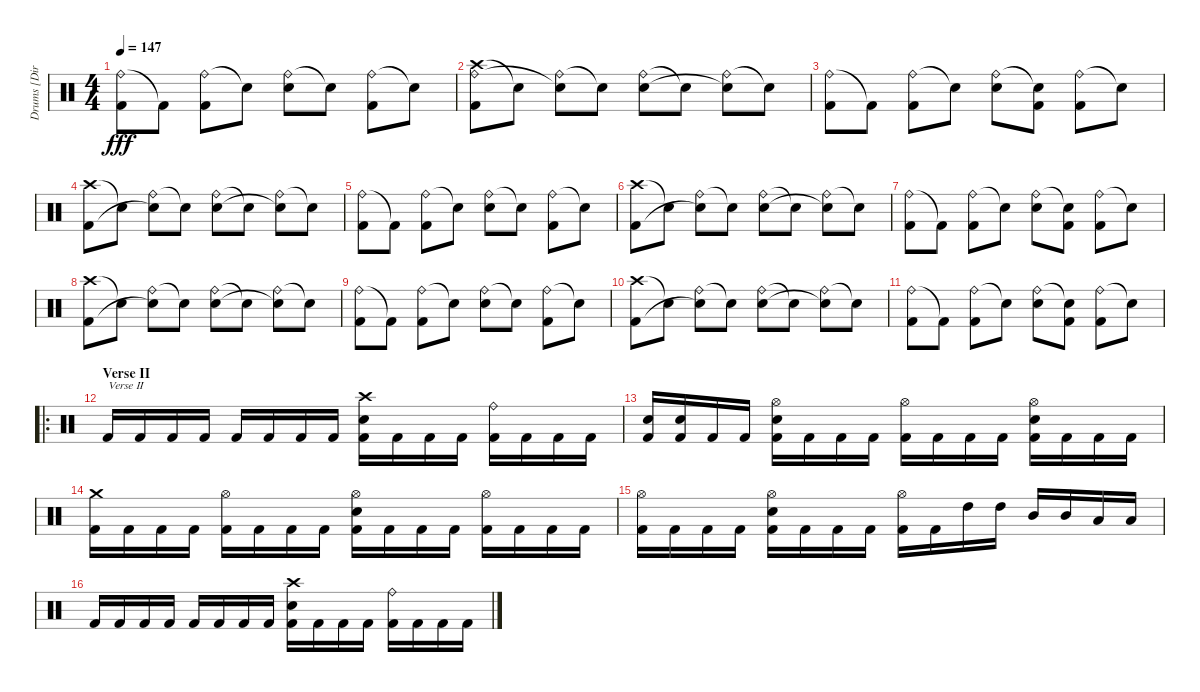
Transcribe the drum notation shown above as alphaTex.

\track ("Drums [Dirge Rep]" "Drums [Dir") {instrument percussion}
\staff {score}
\articulation defaults
\ts (4 4)
\tempo 147
\clef neutral
\ks c
("Ride (bell)" "Kick (hit) 2").8{dy fff} "Kick (hit) 2"{t}.8 ("Ride (bell)" "Kick (hit) 2").8 "Snare (hit)"{t}.8 ("Ride (bell)" "Electric Snare (hit)").8 "Snare (hit)"{t}.8 ("Ride (bell)" "Kick (hit) 2").8 "Snare (hit)"{t}.8 |
("Crash high (hit)" "Ride (bell)" "Kick (hit) 2").8 "Snare (hit)"{t}.8 ("Ride (bell)" "Snare (hit)"{t}).8 "Snare (hit)"{t}.8 ("Ride (bell)" "Electric Snare (hit)").8 "Snare (hit)"{t}.8 ("Ride (bell)" "Snare (hit)"{t}).8 "Snare (hit)"{t}.8 |
("Ride (bell)" "Kick (hit) 2").8 "Kick (hit) 2"{t}.8 ("Ride (bell)" "Kick (hit) 2").8 "Snare (hit)"{t}.8 ("Ride (bell)" "Electric Snare (hit)").8 ("Snare (hit)"{t} "Kick (hit) 2").8 ("Ride (bell)" "Kick (hit) 2").8 "Snare (hit)"{t}.8 |
("Crash high (hit)" "Kick (hit) 2").8 "Snare (hit)"{t}.8 ("Ride (bell)" "Snare (hit)"{t}).8 "Snare (hit)"{t}.8 ("Ride (bell)" "Electric Snare (hit)").8 "Snare (hit)"{t}.8 ("Ride (bell)" "Snare (hit)"{t}).8 "Snare (hit)"{t}.8 |
("Ride (bell)" "Kick (hit) 2").8 "Kick (hit) 2"{t}.8 ("Ride (bell)" "Kick (hit) 2").8 "Snare (hit)"{t}.8 ("Ride (bell)" "Electric Snare (hit)").8 "Snare (hit)"{t}.8 ("Ride (bell)" "Kick (hit) 2").8 "Snare (hit)"{t}.8 |
("Crash high (hit)" "Kick (hit) 2").8 "Snare (hit)"{t}.8 ("Ride (bell)" "Snare (hit)"{t}).8 "Snare (hit)"{t}.8 ("Ride (bell)" "Electric Snare (hit)").8 "Snare (hit)"{t}.8 ("Ride (bell)" "Snare (hit)"{t}).8 "Snare (hit)"{t}.8 |
("Ride (bell)" "Kick (hit) 2").8 "Kick (hit) 2"{t}.8 ("Ride (bell)" "Kick (hit) 2").8 "Snare (hit)"{t}.8 ("Ride (bell)" "Electric Snare (hit)").8 ("Snare (hit)"{t} "Kick (hit) 2").8 ("Ride (bell)" "Kick (hit) 2").8 "Snare (hit)"{t}.8 |
("Crash high (hit)" "Kick (hit) 2").8 "Snare (hit)"{t}.8 ("Ride (bell)" "Snare (hit)"{t}).8 "Snare (hit)"{t}.8 ("Ride (bell)" "Electric Snare (hit)").8 "Snare (hit)"{t}.8 ("Ride (bell)" "Snare (hit)"{t}).8 "Snare (hit)"{t}.8 |
("Ride (bell)" "Kick (hit) 2").8 "Kick (hit) 2"{t}.8 ("Ride (bell)" "Kick (hit) 2").8 "Snare (hit)"{t}.8 ("Ride (bell)" "Electric Snare (hit)").8 "Snare (hit)"{t}.8 ("Ride (bell)" "Kick (hit) 2").8 "Snare (hit)"{t}.8 |
("Crash high (hit)" "Kick (hit) 2").8 "Snare (hit)"{t}.8 ("Ride (bell)" "Snare (hit)"{t}).8 "Snare (hit)"{t}.8 ("Ride (bell)" "Electric Snare (hit)").8 "Snare (hit)"{t}.8 ("Ride (bell)" "Snare (hit)"{t}).8 "Snare (hit)"{t}.8 |
("Ride (bell)" "Kick (hit) 2").8 "Kick (hit) 2"{t}.8 ("Ride (bell)" "Kick (hit) 2").8 "Snare (hit)"{t}.8 ("Ride (bell)" "Electric Snare (hit)").8 ("Snare (hit)"{t} "Kick (hit) 2").8 ("Ride (bell)" "Kick (hit) 2").8 "Snare (hit)"{t}.8 |
\ro
\section ("" "Verse II")
"Kick (hit) 2".16{txt "Verse II"} "Kick (hit) 2".16 "Kick (hit) 2".16 "Kick (hit) 2".16 "Kick (hit) 2".16 "Kick (hit) 2".16 "Kick (hit) 2".16 "Kick (hit) 2".16 ("Crash high (hit)" "Electric Snare (hit)" "Kick (hit) 2").16 "Kick (hit) 2".16 "Kick (hit) 2".16 "Kick (hit) 2".16 ("Ride (bell)" "Kick (hit) 2").16 "Kick (hit) 2".16 "Kick (hit) 2".16 "Kick (hit) 2".16 |
("Electric Snare (hit)" "Kick (hit) 2").16 ("Electric Snare (hit)" "Kick (hit) 2").16 "Kick (hit) 2".16 "Kick (hit) 2".16 ("Hi-Hat (open)" "Electric Snare (hit)" "Kick (hit) 2").16 "Kick (hit) 2".16 "Kick (hit) 2".16 "Kick (hit) 2".16 ("Hi-Hat (open)" "Kick (hit) 2").16 "Kick (hit) 2".16 "Kick (hit) 2".16 "Kick (hit) 2".16 ("Hi-Hat (open)" "Electric Snare (hit)" "Kick (hit) 2").16 "Kick (hit) 2".16 "Kick (hit) 2".16 "Kick (hit) 2".16 |
("Crash medium (hit)" "Kick (hit) 2").16 "Kick (hit) 2".16 "Kick (hit) 2".16 "Kick (hit) 2".16 ("Hi-Hat (open)" "Kick (hit) 2").16 "Kick (hit) 2".16 "Kick (hit) 2".16 "Kick (hit) 2".16 ("Hi-Hat (open)" "Electric Snare (hit)" "Kick (hit) 2").16 "Kick (hit) 2".16 "Kick (hit) 2".16 "Kick (hit) 2".16 ("Hi-Hat (open)" "Kick (hit) 2").16 "Kick (hit) 2".16 "Kick (hit) 2".16 "Kick (hit) 2".16 |
("Hi-Hat (open)" "Kick (hit) 2").16 "Kick (hit) 2".16 "Kick (hit) 2".16 "Kick (hit) 2".16 ("Hi-Hat (open)" "Electric Snare (hit)" "Kick (hit) 2").16 "Kick (hit) 2".16 "Kick (hit) 2".16 "Kick (hit) 2".16 ("Hi-Hat (open)" "Kick (hit) 2").16 "Kick (hit) 2".16 "High Tom (hit)".16 "High Tom (hit)".16 "Mid Tom (hit)".16 "Mid Tom (hit)".16 "Low Tom (hit)".16 "Low Tom (hit)".16 |
"Kick (hit) 2".16 "Kick (hit) 2".16 "Kick (hit) 2".16 "Kick (hit) 2".16 "Kick (hit) 2".16 "Kick (hit) 2".16 "Kick (hit) 2".16 "Kick (hit) 2".16 ("Crash high (hit)" "Electric Snare (hit)" "Kick (hit) 2").16 "Kick (hit) 2".16 "Kick (hit) 2".16 "Kick (hit) 2".16 ("Ride (bell)" "Kick (hit) 2").16 "Kick (hit) 2".16 "Kick (hit) 2".16 "Kick (hit) 2".16
